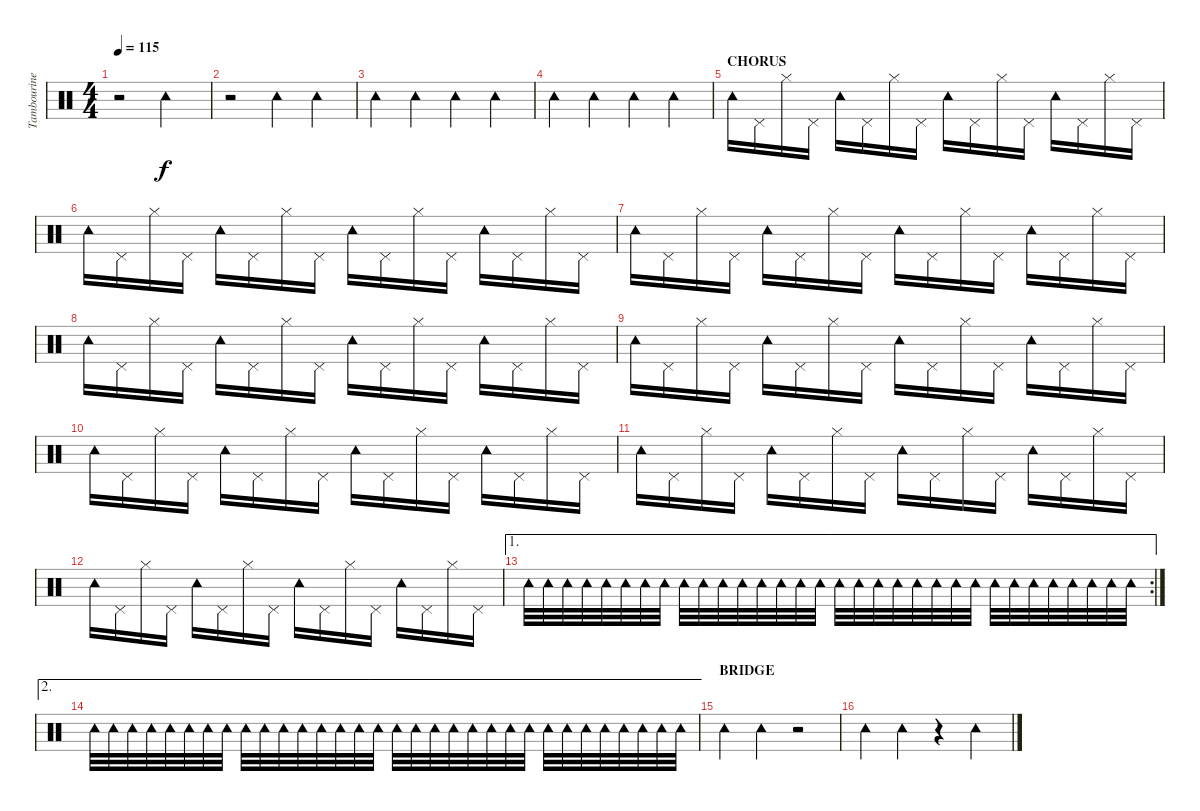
\track ("Tambourine" "Tambourine") {instrument percussion}
\staff {score}
\articulation defaults
\ts (4 4)
\tempo 115
\clef neutral
\ks c
r.2{dy f} "Tambourine (hit)".2 |
r.2 "Tambourine (hit)".4 "Tambourine (hit)".4 |
"Tambourine (hit)".4 "Tambourine (hit)".4 "Tambourine (hit)".4 "Tambourine (hit)".4 |
"Tambourine (hit)".4 "Tambourine (hit)".4 "Tambourine (hit)".4 "Tambourine (hit)".4 |
\section ("" "CHORUS")
"Tambourine (hit)".16 "Pedal Hi-Hat (hit)".16 "Hi-Hat (closed)".16 "Pedal Hi-Hat (hit)".16 "Tambourine (hit)".16 "Pedal Hi-Hat (hit)".16 "Hi-Hat (closed)".16 "Pedal Hi-Hat (hit)".16 "Tambourine (hit)".16 "Pedal Hi-Hat (hit)".16 "Hi-Hat (closed)".16 "Pedal Hi-Hat (hit)".16 "Tambourine (hit)".16 "Pedal Hi-Hat (hit)".16 "Hi-Hat (closed)".16 "Pedal Hi-Hat (hit)".16 |
"Tambourine (hit)".16 "Pedal Hi-Hat (hit)".16 "Hi-Hat (closed)".16 "Pedal Hi-Hat (hit)".16 "Tambourine (hit)".16 "Pedal Hi-Hat (hit)".16 "Hi-Hat (closed)".16 "Pedal Hi-Hat (hit)".16 "Tambourine (hit)".16 "Pedal Hi-Hat (hit)".16 "Hi-Hat (closed)".16 "Pedal Hi-Hat (hit)".16 "Tambourine (hit)".16 "Pedal Hi-Hat (hit)".16 "Hi-Hat (closed)".16 "Pedal Hi-Hat (hit)".16 |
"Tambourine (hit)".16 "Pedal Hi-Hat (hit)".16 "Hi-Hat (closed)".16 "Pedal Hi-Hat (hit)".16 "Tambourine (hit)".16 "Pedal Hi-Hat (hit)".16 "Hi-Hat (closed)".16 "Pedal Hi-Hat (hit)".16 "Tambourine (hit)".16 "Pedal Hi-Hat (hit)".16 "Hi-Hat (closed)".16 "Pedal Hi-Hat (hit)".16 "Tambourine (hit)".16 "Pedal Hi-Hat (hit)".16 "Hi-Hat (closed)".16 "Pedal Hi-Hat (hit)".16 |
"Tambourine (hit)".16 "Pedal Hi-Hat (hit)".16 "Hi-Hat (closed)".16 "Pedal Hi-Hat (hit)".16 "Tambourine (hit)".16 "Pedal Hi-Hat (hit)".16 "Hi-Hat (closed)".16 "Pedal Hi-Hat (hit)".16 "Tambourine (hit)".16 "Pedal Hi-Hat (hit)".16 "Hi-Hat (closed)".16 "Pedal Hi-Hat (hit)".16 "Tambourine (hit)".16 "Pedal Hi-Hat (hit)".16 "Hi-Hat (closed)".16 "Pedal Hi-Hat (hit)".16 |
"Tambourine (hit)".16 "Pedal Hi-Hat (hit)".16 "Hi-Hat (closed)".16 "Pedal Hi-Hat (hit)".16 "Tambourine (hit)".16 "Pedal Hi-Hat (hit)".16 "Hi-Hat (closed)".16 "Pedal Hi-Hat (hit)".16 "Tambourine (hit)".16 "Pedal Hi-Hat (hit)".16 "Hi-Hat (closed)".16 "Pedal Hi-Hat (hit)".16 "Tambourine (hit)".16 "Pedal Hi-Hat (hit)".16 "Hi-Hat (closed)".16 "Pedal Hi-Hat (hit)".16 |
"Tambourine (hit)".16 "Pedal Hi-Hat (hit)".16 "Hi-Hat (closed)".16 "Pedal Hi-Hat (hit)".16 "Tambourine (hit)".16 "Pedal Hi-Hat (hit)".16 "Hi-Hat (closed)".16 "Pedal Hi-Hat (hit)".16 "Tambourine (hit)".16 "Pedal Hi-Hat (hit)".16 "Hi-Hat (closed)".16 "Pedal Hi-Hat (hit)".16 "Tambourine (hit)".16 "Pedal Hi-Hat (hit)".16 "Hi-Hat (closed)".16 "Pedal Hi-Hat (hit)".16 |
"Tambourine (hit)".16 "Pedal Hi-Hat (hit)".16 "Hi-Hat (closed)".16 "Pedal Hi-Hat (hit)".16 "Tambourine (hit)".16 "Pedal Hi-Hat (hit)".16 "Hi-Hat (closed)".16 "Pedal Hi-Hat (hit)".16 "Tambourine (hit)".16 "Pedal Hi-Hat (hit)".16 "Hi-Hat (closed)".16 "Pedal Hi-Hat (hit)".16 "Tambourine (hit)".16 "Pedal Hi-Hat (hit)".16 "Hi-Hat (closed)".16 "Pedal Hi-Hat (hit)".16 |
"Tambourine (hit)".16 "Pedal Hi-Hat (hit)".16 "Hi-Hat (closed)".16 "Pedal Hi-Hat (hit)".16 "Tambourine (hit)".16 "Pedal Hi-Hat (hit)".16 "Hi-Hat (closed)".16 "Pedal Hi-Hat (hit)".16 "Tambourine (hit)".16 "Pedal Hi-Hat (hit)".16 "Hi-Hat (closed)".16 "Pedal Hi-Hat (hit)".16 "Tambourine (hit)".16 "Pedal Hi-Hat (hit)".16 "Hi-Hat (closed)".16 "Pedal Hi-Hat (hit)".16 |
\ae 1
\rc 2 "Tambourine (hit)".32 "Tambourine (hit)".32 "Tambourine (hit)".32 "Tambourine (hit)".32 "Tambourine (hit)".32 "Tambourine (hit)".32 "Tambourine (hit)".32 "Tambourine (hit)".32 "Tambourine (hit)".32 "Tambourine (hit)".32 "Tambourine (hit)".32 "Tambourine (hit)".32 "Tambourine (hit)".32 "Tambourine (hit)".32 "Tambourine (hit)".32 "Tambourine (hit)".32 "Tambourine (hit)".32{volume 6} "Tambourine (hit)".32 "Tambourine (hit)".32{volume 5} "Tambourine (hit)".32 "Tambourine (hit)".32{volume 5} "Tambourine (hit)".32 "Tambourine (hit)".32{volume 5} "Tambourine (hit)".32 "Tambourine (hit)".32{volume 4} "Tambourine (hit)".32 "Tambourine (hit)".32 "Tambourine (hit)".32{volume 4} "Tambourine (hit)".32 "Tambourine (hit)".32 "Tambourine (hit)".32{volume 3} "Tambourine (hit)".32
|
\ae 2 "Tambourine (hit)".32 "Tambourine (hit)".32 "Tambourine (hit)".32 "Tambourine (hit)".32 "Tambourine (hit)".32 "Tambourine (hit)".32 "Tambourine (hit)".32 "Tambourine (hit)".32 "Tambourine (hit)".32 "Tambourine (hit)".32 "Tambourine (hit)".32 "Tambourine (hit)".32 "Tambourine (hit)".32 "Tambourine (hit)".32 "Tambourine (hit)".32 "Tambourine (hit)".32 "Tambourine (hit)".32{volume 6} "Tambourine (hit)".32 "Tambourine (hit)".32{volume 5} "Tambourine (hit)".32 "Tambourine (hit)".32{volume 5} "Tambourine (hit)".32 "Tambourine (hit)".32{volume 5} "Tambourine (hit)".32 "Tambourine (hit)".32{volume 4} "Tambourine (hit)".32 "Tambourine (hit)".32 "Tambourine (hit)".32{volume 4} "Tambourine (hit)".32 "Tambourine (hit)".32 "Tambourine (hit)".32{volume 3} "Tambourine (hit)".32
|
\section ("" "BRIDGE")
"Tambourine (hit)".4{volume 7} "Tambourine (hit)".4 r.2 |
"Tambourine (hit)".4 "Tambourine (hit)".4 r.4 "Tambourine (hit)".4
